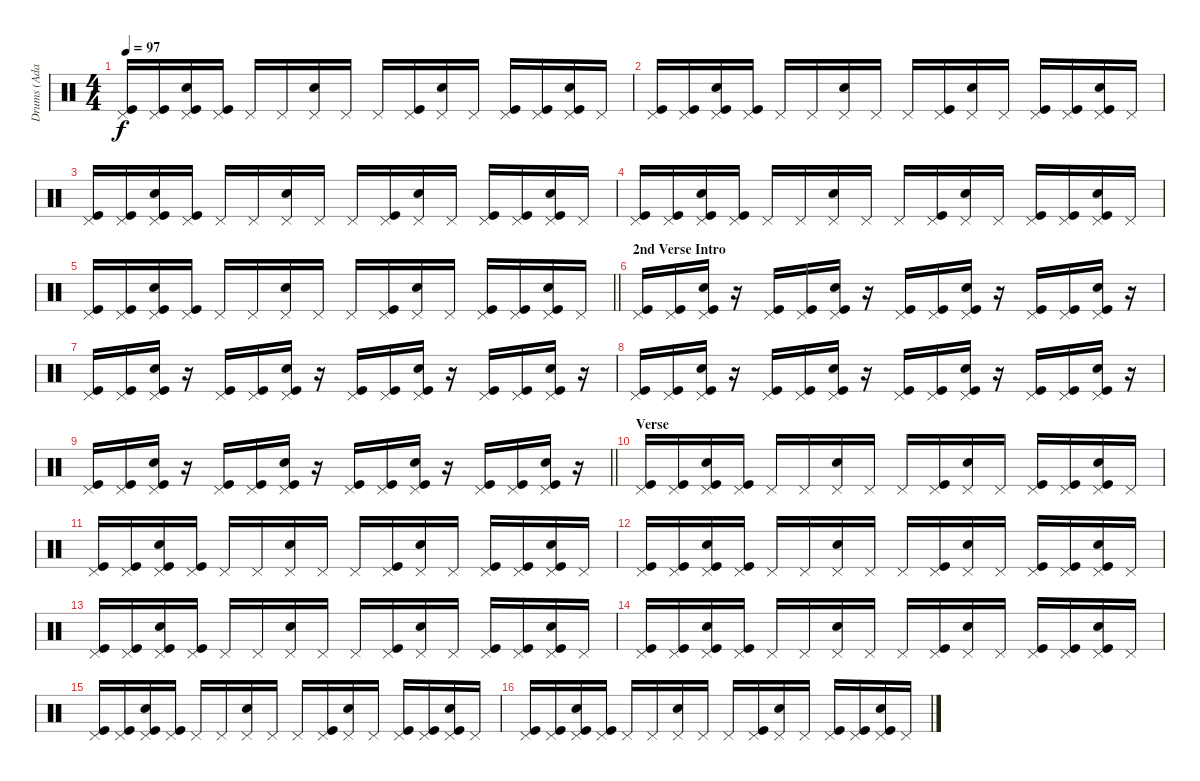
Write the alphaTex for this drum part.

\track ("Drums (Adam)" "Drums (Ada") {instrument percussion}
\staff {score}
\articulation defaults
\ts (4 4)
\tempo 97
\clef neutral
\ks c
("Kick (hit)" "Pedal Hi-Hat (hit)").16{dy f} ("Kick (hit)" "Pedal Hi-Hat (hit)").16 ("Kick (hit)" "Snare (hit) 2" "Pedal Hi-Hat (hit)").16 ("Kick (hit)" "Pedal Hi-Hat (hit)").16 "Pedal Hi-Hat (hit)".16 "Pedal Hi-Hat (hit)".16 ("Snare (hit) 2" "Pedal Hi-Hat (hit)").16 "Pedal Hi-Hat (hit)".16 "Pedal Hi-Hat (hit)".16 ("Kick (hit)" "Pedal Hi-Hat (hit)").16 ("Snare (hit) 2" "Pedal Hi-Hat (hit)").16 "Pedal Hi-Hat (hit)".16 ("Kick (hit)" "Pedal Hi-Hat (hit)").16 ("Kick (hit)" "Pedal Hi-Hat (hit)").16 ("Kick (hit)" "Pedal Hi-Hat (hit)" "Snare (hit) 2").16 "Pedal Hi-Hat (hit)".16 |
("Kick (hit)" "Pedal Hi-Hat (hit)").16 ("Kick (hit)" "Pedal Hi-Hat (hit)").16 ("Kick (hit)" "Snare (hit) 2" "Pedal Hi-Hat (hit)").16 ("Kick (hit)" "Pedal Hi-Hat (hit)").16 "Pedal Hi-Hat (hit)".16 "Pedal Hi-Hat (hit)".16 ("Snare (hit) 2" "Pedal Hi-Hat (hit)").16 "Pedal Hi-Hat (hit)".16 "Pedal Hi-Hat (hit)".16 ("Kick (hit)" "Pedal Hi-Hat (hit)").16 ("Snare (hit) 2" "Pedal Hi-Hat (hit)").16 "Pedal Hi-Hat (hit)".16 ("Kick (hit)" "Pedal Hi-Hat (hit)").16 ("Kick (hit)" "Pedal Hi-Hat (hit)").16 ("Kick (hit)" "Pedal Hi-Hat (hit)" "Snare (hit) 2").16 "Pedal Hi-Hat (hit)".16 |
("Kick (hit)" "Pedal Hi-Hat (hit)").16 ("Kick (hit)" "Pedal Hi-Hat (hit)").16 ("Kick (hit)" "Snare (hit) 2" "Pedal Hi-Hat (hit)").16 ("Kick (hit)" "Pedal Hi-Hat (hit)").16 "Pedal Hi-Hat (hit)".16 "Pedal Hi-Hat (hit)".16 ("Snare (hit) 2" "Pedal Hi-Hat (hit)").16 "Pedal Hi-Hat (hit)".16 "Pedal Hi-Hat (hit)".16 ("Kick (hit)" "Pedal Hi-Hat (hit)").16 ("Snare (hit) 2" "Pedal Hi-Hat (hit)").16 "Pedal Hi-Hat (hit)".16 ("Kick (hit)" "Pedal Hi-Hat (hit)").16 ("Kick (hit)" "Pedal Hi-Hat (hit)").16 ("Kick (hit)" "Pedal Hi-Hat (hit)" "Snare (hit) 2").16 "Pedal Hi-Hat (hit)".16 |
("Kick (hit)" "Pedal Hi-Hat (hit)").16 ("Kick (hit)" "Pedal Hi-Hat (hit)").16 ("Kick (hit)" "Snare (hit) 2" "Pedal Hi-Hat (hit)").16 ("Kick (hit)" "Pedal Hi-Hat (hit)").16 "Pedal Hi-Hat (hit)".16 "Pedal Hi-Hat (hit)".16 ("Snare (hit) 2" "Pedal Hi-Hat (hit)").16 "Pedal Hi-Hat (hit)".16 "Pedal Hi-Hat (hit)".16 ("Kick (hit)" "Pedal Hi-Hat (hit)").16 ("Snare (hit) 2" "Pedal Hi-Hat (hit)").16 "Pedal Hi-Hat (hit)".16 ("Kick (hit)" "Pedal Hi-Hat (hit)").16 ("Kick (hit)" "Pedal Hi-Hat (hit)").16 ("Kick (hit)" "Pedal Hi-Hat (hit)" "Snare (hit) 2").16 "Pedal Hi-Hat (hit)".16 |
\barLineRight lightlight
("Kick (hit)" "Pedal Hi-Hat (hit)").16 ("Kick (hit)" "Pedal Hi-Hat (hit)").16 ("Kick (hit)" "Snare (hit) 2" "Pedal Hi-Hat (hit)").16 ("Kick (hit)" "Pedal Hi-Hat (hit)").16 "Pedal Hi-Hat (hit)".16 "Pedal Hi-Hat (hit)".16 ("Snare (hit) 2" "Pedal Hi-Hat (hit)").16 "Pedal Hi-Hat (hit)".16 "Pedal Hi-Hat (hit)".16 ("Kick (hit)" "Pedal Hi-Hat (hit)").16 ("Snare (hit) 2" "Pedal Hi-Hat (hit)").16 "Pedal Hi-Hat (hit)".16 ("Kick (hit)" "Pedal Hi-Hat (hit)").16 ("Kick (hit)" "Pedal Hi-Hat (hit)").16 ("Kick (hit)" "Pedal Hi-Hat (hit)" "Snare (hit) 2").16 "Pedal Hi-Hat (hit)".16 |
\section ("" "2nd Verse Intro")
("Kick (hit)" "Pedal Hi-Hat (hit)").16 ("Kick (hit)" "Pedal Hi-Hat (hit)").16 ("Kick (hit)" "Pedal Hi-Hat (hit)" "Snare (hit) 2").16 r.16 ("Kick (hit)" "Pedal Hi-Hat (hit)").16 ("Kick (hit)" "Pedal Hi-Hat (hit)").16 ("Kick (hit)" "Pedal Hi-Hat (hit)" "Snare (hit) 2").16 r.16 ("Kick (hit)" "Pedal Hi-Hat (hit)").16 ("Kick (hit)" "Pedal Hi-Hat (hit)").16 ("Kick (hit)" "Pedal Hi-Hat (hit)" "Snare (hit) 2").16 r.16 ("Kick (hit)" "Pedal Hi-Hat (hit)").16 ("Kick (hit)" "Pedal Hi-Hat (hit)").16 ("Kick (hit)" "Pedal Hi-Hat (hit)" "Snare (hit) 2").16 r.16 |
("Kick (hit)" "Pedal Hi-Hat (hit)").16 ("Kick (hit)" "Pedal Hi-Hat (hit)").16 ("Kick (hit)" "Pedal Hi-Hat (hit)" "Snare (hit) 2").16 r.16 ("Kick (hit)" "Pedal Hi-Hat (hit)").16 ("Kick (hit)" "Pedal Hi-Hat (hit)").16 ("Kick (hit)" "Pedal Hi-Hat (hit)" "Snare (hit) 2").16 r.16 ("Kick (hit)" "Pedal Hi-Hat (hit)").16 ("Kick (hit)" "Pedal Hi-Hat (hit)").16 ("Kick (hit)" "Pedal Hi-Hat (hit)" "Snare (hit) 2").16 r.16 ("Kick (hit)" "Pedal Hi-Hat (hit)").16 ("Kick (hit)" "Pedal Hi-Hat (hit)").16 ("Kick (hit)" "Pedal Hi-Hat (hit)" "Snare (hit) 2").16 r.16 |
("Kick (hit)" "Pedal Hi-Hat (hit)").16 ("Kick (hit)" "Pedal Hi-Hat (hit)").16 ("Kick (hit)" "Pedal Hi-Hat (hit)" "Snare (hit) 2").16 r.16 ("Kick (hit)" "Pedal Hi-Hat (hit)").16 ("Kick (hit)" "Pedal Hi-Hat (hit)").16 ("Kick (hit)" "Pedal Hi-Hat (hit)" "Snare (hit) 2").16 r.16 ("Kick (hit)" "Pedal Hi-Hat (hit)").16 ("Kick (hit)" "Pedal Hi-Hat (hit)").16 ("Kick (hit)" "Pedal Hi-Hat (hit)" "Snare (hit) 2").16 r.16 ("Kick (hit)" "Pedal Hi-Hat (hit)").16 ("Kick (hit)" "Pedal Hi-Hat (hit)").16 ("Kick (hit)" "Pedal Hi-Hat (hit)" "Snare (hit) 2").16 r.16 |
\barLineRight lightlight
("Kick (hit)" "Pedal Hi-Hat (hit)").16 ("Kick (hit)" "Pedal Hi-Hat (hit)").16 ("Kick (hit)" "Pedal Hi-Hat (hit)" "Snare (hit) 2").16 r.16 ("Kick (hit)" "Pedal Hi-Hat (hit)").16 ("Kick (hit)" "Pedal Hi-Hat (hit)").16 ("Kick (hit)" "Pedal Hi-Hat (hit)" "Snare (hit) 2").16 r.16 ("Kick (hit)" "Pedal Hi-Hat (hit)").16 ("Kick (hit)" "Pedal Hi-Hat (hit)").16 ("Kick (hit)" "Pedal Hi-Hat (hit)" "Snare (hit) 2").16 r.16 ("Kick (hit)" "Pedal Hi-Hat (hit)").16 ("Kick (hit)" "Pedal Hi-Hat (hit)").16 ("Kick (hit)" "Pedal Hi-Hat (hit)" "Snare (hit) 2").16 r.16 |
\section ("" "Verse")
("Kick (hit)" "Pedal Hi-Hat (hit)").16 ("Kick (hit)" "Pedal Hi-Hat (hit)").16 ("Kick (hit)" "Snare (hit) 2" "Pedal Hi-Hat (hit)").16 ("Kick (hit)" "Pedal Hi-Hat (hit)").16 "Pedal Hi-Hat (hit)".16 "Pedal Hi-Hat (hit)".16 ("Snare (hit) 2" "Pedal Hi-Hat (hit)").16 "Pedal Hi-Hat (hit)".16 "Pedal Hi-Hat (hit)".16 ("Kick (hit)" "Pedal Hi-Hat (hit)").16 ("Snare (hit) 2" "Pedal Hi-Hat (hit)").16 "Pedal Hi-Hat (hit)".16 ("Kick (hit)" "Pedal Hi-Hat (hit)").16 ("Kick (hit)" "Pedal Hi-Hat (hit)").16 ("Kick (hit)" "Pedal Hi-Hat (hit)" "Snare (hit) 2").16 "Pedal Hi-Hat (hit)".16 |
("Kick (hit)" "Pedal Hi-Hat (hit)").16 ("Kick (hit)" "Pedal Hi-Hat (hit)").16 ("Kick (hit)" "Snare (hit) 2" "Pedal Hi-Hat (hit)").16 ("Kick (hit)" "Pedal Hi-Hat (hit)").16 "Pedal Hi-Hat (hit)".16 "Pedal Hi-Hat (hit)".16 ("Snare (hit) 2" "Pedal Hi-Hat (hit)").16 "Pedal Hi-Hat (hit)".16 "Pedal Hi-Hat (hit)".16 ("Kick (hit)" "Pedal Hi-Hat (hit)").16 ("Snare (hit) 2" "Pedal Hi-Hat (hit)").16 "Pedal Hi-Hat (hit)".16 ("Kick (hit)" "Pedal Hi-Hat (hit)").16 ("Kick (hit)" "Pedal Hi-Hat (hit)").16 ("Kick (hit)" "Pedal Hi-Hat (hit)" "Snare (hit) 2").16 "Pedal Hi-Hat (hit)".16 |
("Kick (hit)" "Pedal Hi-Hat (hit)").16 ("Kick (hit)" "Pedal Hi-Hat (hit)").16 ("Kick (hit)" "Snare (hit) 2" "Pedal Hi-Hat (hit)").16 ("Kick (hit)" "Pedal Hi-Hat (hit)").16 "Pedal Hi-Hat (hit)".16 "Pedal Hi-Hat (hit)".16 ("Snare (hit) 2" "Pedal Hi-Hat (hit)").16 "Pedal Hi-Hat (hit)".16 "Pedal Hi-Hat (hit)".16 ("Kick (hit)" "Pedal Hi-Hat (hit)").16 ("Snare (hit) 2" "Pedal Hi-Hat (hit)").16 "Pedal Hi-Hat (hit)".16 ("Kick (hit)" "Pedal Hi-Hat (hit)").16 ("Kick (hit)" "Pedal Hi-Hat (hit)").16 ("Kick (hit)" "Pedal Hi-Hat (hit)" "Snare (hit) 2").16 "Pedal Hi-Hat (hit)".16 |
("Kick (hit)" "Pedal Hi-Hat (hit)").16 ("Kick (hit)" "Pedal Hi-Hat (hit)").16 ("Kick (hit)" "Snare (hit) 2" "Pedal Hi-Hat (hit)").16 ("Kick (hit)" "Pedal Hi-Hat (hit)").16 "Pedal Hi-Hat (hit)".16 "Pedal Hi-Hat (hit)".16 ("Snare (hit) 2" "Pedal Hi-Hat (hit)").16 "Pedal Hi-Hat (hit)".16 "Pedal Hi-Hat (hit)".16 ("Kick (hit)" "Pedal Hi-Hat (hit)").16 ("Snare (hit) 2" "Pedal Hi-Hat (hit)").16 "Pedal Hi-Hat (hit)".16 ("Kick (hit)" "Pedal Hi-Hat (hit)").16 ("Kick (hit)" "Pedal Hi-Hat (hit)").16 ("Kick (hit)" "Pedal Hi-Hat (hit)" "Snare (hit) 2").16 "Pedal Hi-Hat (hit)".16 |
("Kick (hit)" "Pedal Hi-Hat (hit)").16 ("Kick (hit)" "Pedal Hi-Hat (hit)").16 ("Kick (hit)" "Snare (hit) 2" "Pedal Hi-Hat (hit)").16 ("Kick (hit)" "Pedal Hi-Hat (hit)").16 "Pedal Hi-Hat (hit)".16 "Pedal Hi-Hat (hit)".16 ("Snare (hit) 2" "Pedal Hi-Hat (hit)").16 "Pedal Hi-Hat (hit)".16 "Pedal Hi-Hat (hit)".16 ("Kick (hit)" "Pedal Hi-Hat (hit)").16 ("Snare (hit) 2" "Pedal Hi-Hat (hit)").16 "Pedal Hi-Hat (hit)".16 ("Kick (hit)" "Pedal Hi-Hat (hit)").16 ("Kick (hit)" "Pedal Hi-Hat (hit)").16 ("Kick (hit)" "Pedal Hi-Hat (hit)" "Snare (hit) 2").16 "Pedal Hi-Hat (hit)".16 |
("Kick (hit)" "Pedal Hi-Hat (hit)").16 ("Kick (hit)" "Pedal Hi-Hat (hit)").16 ("Kick (hit)" "Snare (hit) 2" "Pedal Hi-Hat (hit)").16 ("Kick (hit)" "Pedal Hi-Hat (hit)").16 "Pedal Hi-Hat (hit)".16 "Pedal Hi-Hat (hit)".16 ("Snare (hit) 2" "Pedal Hi-Hat (hit)").16 "Pedal Hi-Hat (hit)".16 "Pedal Hi-Hat (hit)".16 ("Kick (hit)" "Pedal Hi-Hat (hit)").16 ("Snare (hit) 2" "Pedal Hi-Hat (hit)").16 "Pedal Hi-Hat (hit)".16 ("Kick (hit)" "Pedal Hi-Hat (hit)").16 ("Kick (hit)" "Pedal Hi-Hat (hit)").16 ("Kick (hit)" "Pedal Hi-Hat (hit)" "Snare (hit) 2").16 "Pedal Hi-Hat (hit)".16 |
("Kick (hit)" "Pedal Hi-Hat (hit)").16 ("Kick (hit)" "Pedal Hi-Hat (hit)").16 ("Kick (hit)" "Snare (hit) 2" "Pedal Hi-Hat (hit)").16 ("Kick (hit)" "Pedal Hi-Hat (hit)").16 "Pedal Hi-Hat (hit)".16 "Pedal Hi-Hat (hit)".16 ("Snare (hit) 2" "Pedal Hi-Hat (hit)").16 "Pedal Hi-Hat (hit)".16 "Pedal Hi-Hat (hit)".16 ("Kick (hit)" "Pedal Hi-Hat (hit)").16 ("Snare (hit) 2" "Pedal Hi-Hat (hit)").16 "Pedal Hi-Hat (hit)".16 ("Kick (hit)" "Pedal Hi-Hat (hit)").16 ("Kick (hit)" "Pedal Hi-Hat (hit)").16 ("Kick (hit)" "Pedal Hi-Hat (hit)" "Snare (hit) 2").16 "Pedal Hi-Hat (hit)".16
